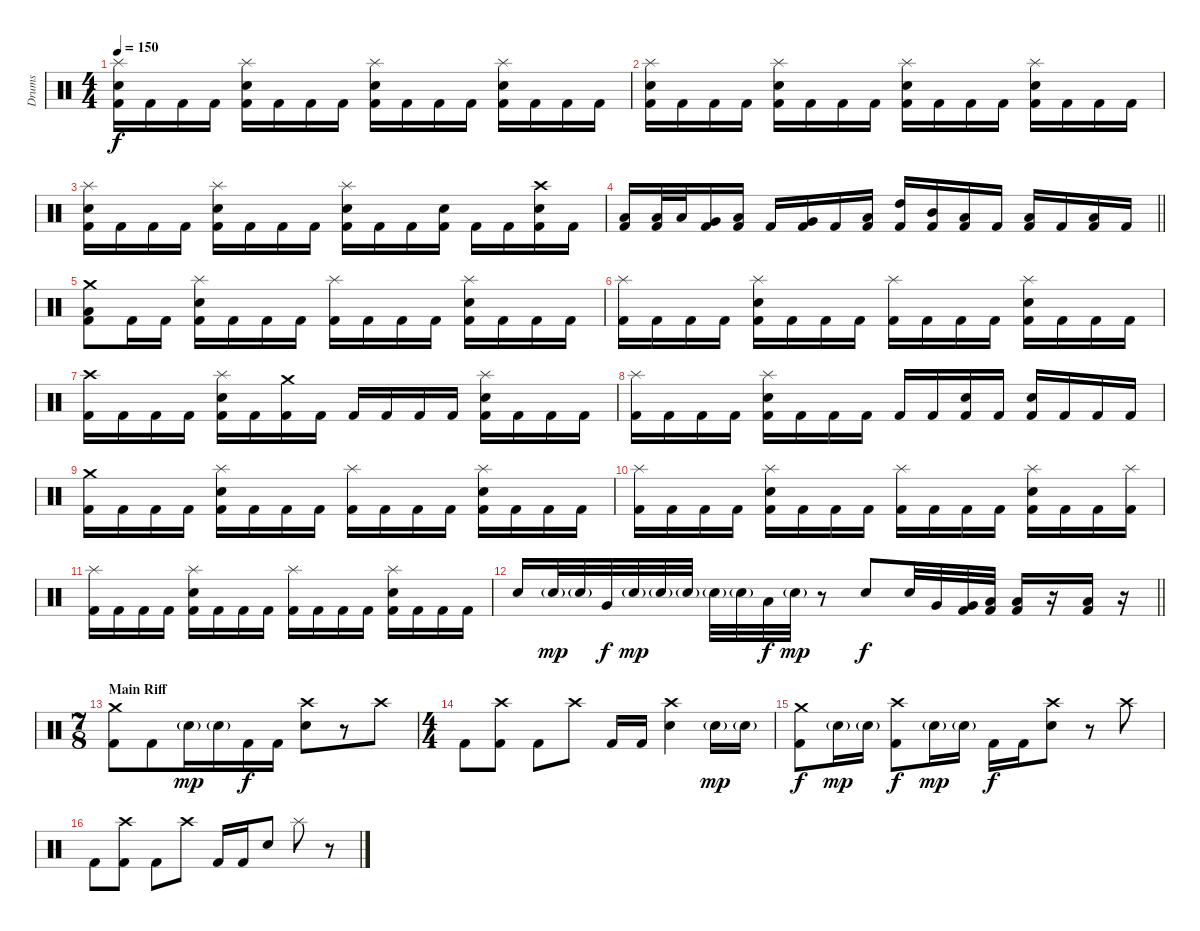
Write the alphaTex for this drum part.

\track ("Drums" "Drums") {instrument percussion}
\staff {score}
\articulation defaults
\ts (4 4)
\tempo 150
\clef neutral
\ks c
("Splash (hit)" "Electric Snare (hit)" "Kick (hit) 2").16{dy f} "Kick (hit) 2".16 "Kick (hit) 2".16 "Kick (hit) 2".16 ("Splash (hit)" "Electric Snare (hit)" "Kick (hit) 2").16 "Kick (hit) 2".16 "Kick (hit) 2".16 "Kick (hit) 2".16 ("Splash (hit)" "Electric Snare (hit)" "Kick (hit) 2").16 "Kick (hit) 2".16 "Kick (hit) 2".16 "Kick (hit) 2".16 ("Splash (hit)" "Electric Snare (hit)" "Kick (hit) 2").16 "Kick (hit) 2".16 "Kick (hit) 2".16 "Kick (hit) 2".16 |
("Splash (hit)" "Electric Snare (hit)" "Kick (hit) 2").16 "Kick (hit) 2".16 "Kick (hit) 2".16 "Kick (hit) 2".16 ("Splash (hit)" "Electric Snare (hit)" "Kick (hit) 2").16 "Kick (hit) 2".16 "Kick (hit) 2".16 "Kick (hit) 2".16 ("Splash (hit)" "Electric Snare (hit)" "Kick (hit) 2").16 "Kick (hit) 2".16 "Kick (hit) 2".16 "Kick (hit) 2".16 ("Splash (hit)" "Electric Snare (hit)" "Kick (hit) 2").16 "Kick (hit) 2".16 "Kick (hit) 2".16 "Kick (hit) 2".16 |
("Splash (hit)" "Electric Snare (hit)" "Kick (hit) 2").16 "Kick (hit) 2".16 "Kick (hit) 2".16 "Kick (hit) 2".16 ("Splash (hit)" "Electric Snare (hit)" "Kick (hit) 2").16 "Kick (hit) 2".16 "Kick (hit) 2".16 "Kick (hit) 2".16 ("Splash (hit)" "Electric Snare (hit)" "Kick (hit) 2").16 "Kick (hit) 2".16 "Kick (hit) 2".16 ("Electric Snare (hit)" "Kick (hit) 2").16 "Kick (hit) 2".16 "Kick (hit) 2".16 ("Crash high (hit)" "Electric Snare (hit)" "Kick (hit) 2").16 "Kick (hit) 2".16 |
\barLineRight lightlight
("Low Tom (hit)" "Kick (hit) 2").16 ("Low Tom (hit)" "Kick (hit) 2").32 "Low Tom (hit)".32 ("Very Low Tom (hit)" "Kick (hit) 2").16 ("Low Tom (hit)" "Kick (hit) 2").16 "Kick (hit) 2".16 ("Very Low Tom (hit)" "Kick (hit) 2").16 "Kick (hit) 2".16 ("Low Tom (hit)" "Kick (hit) 2").16 ("High Tom (hit)" "Kick (hit) 2").16 ("Mid Tom (hit)" "Kick (hit) 2").16 ("Low Tom (hit)" "Kick (hit) 2").16 "Kick (hit) 2".16 ("Low Floor Tom (hit)" "Kick (hit) 2").16 "Kick (hit) 2".16 ("Low Floor Tom (hit)" "Kick (hit) 2").16 "Kick (hit) 2".16 |
("Crash medium (hit)" "Low Floor Tom (hit)" "Kick (hit) 2").8 "Kick (hit) 2".16 "Kick (hit) 2".16 ("Splash (hit)" "Electric Snare (hit)" "Kick (hit) 2").16 "Kick (hit) 2".16 "Kick (hit) 2".16 "Kick (hit) 2".16 ("Splash (hit)" "Kick (hit) 2").16 "Kick (hit) 2".16 "Kick (hit) 2".16 "Kick (hit) 2".16 ("Splash (hit)" "Electric Snare (hit)" "Kick (hit) 2").16 "Kick (hit) 2".16 "Kick (hit) 2".16 "Kick (hit) 2".16 |
("Splash (hit)" "Kick (hit) 2").16 "Kick (hit) 2".16 "Kick (hit) 2".16 "Kick (hit) 2".16 ("Splash (hit)" "Electric Snare (hit)" "Kick (hit) 2").16 "Kick (hit) 2".16 "Kick (hit) 2".16 "Kick (hit) 2".16 ("Splash (hit)" "Kick (hit) 2").16 "Kick (hit) 2".16 "Kick (hit) 2".16 "Kick (hit) 2".16 ("Splash (hit)" "Electric Snare (hit)" "Kick (hit) 2").16 "Kick (hit) 2".16 "Kick (hit) 2".16 "Kick (hit) 2".16 |
("Crash high (hit)" "Kick (hit) 2").16 "Kick (hit) 2".16 "Kick (hit) 2".16 "Kick (hit) 2".16 ("Splash (hit)" "Electric Snare (hit)" "Kick (hit) 2").16 "Kick (hit) 2".16 ("Crash medium (hit)" "Kick (hit) 2").16 "Kick (hit) 2".16 "Kick (hit) 2".16 "Kick (hit) 2".16 "Kick (hit) 2".16 "Kick (hit) 2".16 ("Splash (hit)" "Electric Snare (hit)" "Kick (hit) 2").16 "Kick (hit) 2".16 "Kick (hit) 2".16 "Kick (hit) 2".16 |
("Splash (hit)" "Kick (hit) 2").16 "Kick (hit) 2".16 "Kick (hit) 2".16 "Kick (hit) 2".16 ("Splash (hit)" "Electric Snare (hit)" "Kick (hit) 2").16 "Kick (hit) 2".16 "Kick (hit) 2".16 "Kick (hit) 2".16 "Kick (hit) 2".16 "Kick (hit) 2".16 ("Electric Snare (hit)" "Kick (hit) 2").16 "Kick (hit) 2".16 ("Electric Snare (hit)" "Kick (hit) 2").16 "Kick (hit) 2".16 "Kick (hit) 2".16 "Kick (hit) 2".16 |
("Crash medium (hit)" "Kick (hit) 2").16 "Kick (hit) 2".16 "Kick (hit) 2".16 "Kick (hit) 2".16 ("Splash (hit)" "Electric Snare (hit)" "Kick (hit) 2").16 "Kick (hit) 2".16 "Kick (hit) 2".16 "Kick (hit) 2".16 ("Splash (hit)" "Kick (hit) 2").16 "Kick (hit) 2".16 "Kick (hit) 2".16 "Kick (hit) 2".16 ("Splash (hit)" "Electric Snare (hit)" "Kick (hit) 2").16 "Kick (hit) 2".16 "Kick (hit) 2".16 "Kick (hit) 2".16 |
("Splash (hit)" "Kick (hit) 2").16 "Kick (hit) 2".16 "Kick (hit) 2".16 "Kick (hit) 2".16 ("Splash (hit)" "Electric Snare (hit)" "Kick (hit) 2").16 "Kick (hit) 2".16 "Kick (hit) 2".16 "Kick (hit) 2".16 ("Splash (hit)" "Kick (hit) 2").16 "Kick (hit) 2".16 "Kick (hit) 2".16 "Kick (hit) 2".16 ("Splash (hit)" "Electric Snare (hit)" "Kick (hit) 2").16 "Kick (hit) 2".16 "Kick (hit) 2".16 ("Splash (hit)" "Kick (hit) 2").16 |
("Splash (hit)" "Kick (hit) 2").16 "Kick (hit) 2".16 "Kick (hit) 2".16 "Kick (hit) 2".16 ("Splash (hit)" "Electric Snare (hit)" "Kick (hit) 2").16 "Kick (hit) 2".16 "Kick (hit) 2".16 "Kick (hit) 2".16 ("Splash (hit)" "Kick (hit) 2").16 "Kick (hit) 2".16 "Kick (hit) 2".16 "Kick (hit) 2".16 ("Splash (hit)" "Electric Snare (hit)" "Kick (hit) 2").16 "Kick (hit) 2".16 "Kick (hit) 2".16 "Kick (hit) 2".16 |
\barLineRight lightlight "Electric Snare (hit)".16 "Electric Snare (hit)"{g}.32{dy mp} "Electric Snare (hit)"{g}.32 "Very Low Tom (hit)".32{dy f} "Electric Snare (hit)"{g}.32{dy mp} "Electric Snare (hit)"{g}.32 "Electric Snare (hit)"{g}.32 "Electric Snare (hit)"{g}.32 "Electric Snare (hit)"{g}.32 "Low Tom (hit)".32{dy f} "Electric Snare (hit)"{g}.32{dy mp}
r.8 "Electric Snare (hit)".8{dy f} "Electric Snare (hit)".32 "Very Low Tom (hit)".32 ("Very Low Tom (hit)" "Kick (hit) 2").32 ("Low Floor Tom (hit)" "Kick (hit) 2").32 ("Low Floor Tom (hit)" "Kick (hit) 2").16 r.16 ("Low Floor Tom (hit)" "Kick (hit) 2").16 r.16 |
\ts (7 8)
\section ("" "Main Riff")
("Crash medium (hit)" "Kick (hit) 2").8 "Kick (hit) 2".8 "Electric Snare (hit)"{g}.16{dy mp} "Electric Snare (hit)"{g}.16 "Kick (hit) 2".16{dy f} "Kick (hit) 2".16 ("Crash high (hit)" "Electric Snare (hit)").8 r.8 "Crash high (hit)".8 |
\ts (4 4)
"Kick (hit) 2".8 ("Crash high (hit)" "Kick (hit) 2").8 "Kick (hit) 2".8 "Crash high (hit)".8 "Kick (hit) 2".16 "Kick (hit) 2".16 ("Crash high (hit)" "Electric Snare (hit)").4 "Electric Snare (hit)"{g}.16{dy mp} "Electric Snare (hit)"{g}.16 |
("Crash medium (hit)" "Kick (hit) 2").8{dy f} "Electric Snare (hit)"{g}.16{dy mp} "Electric Snare (hit)"{g}.16 ("Crash high (hit)" "Kick (hit) 2").8{dy f} "Electric Snare (hit)"{g}.16{dy mp} "Electric Snare (hit)"{g}.16 "Kick (hit) 2".16{dy f} "Kick (hit) 2".16 ("Crash high (hit)" "Electric Snare (hit)").8 r.8 "Crash high (hit)".8 |
"Kick (hit) 2".8 ("Crash high (hit)" "Kick (hit) 2").8 "Kick (hit) 2".8 "Crash high (hit)".8 "Kick (hit) 2".16 "Kick (hit) 2".16 "Electric Snare (hit)".8 "Splash (hit)".8 r.8
